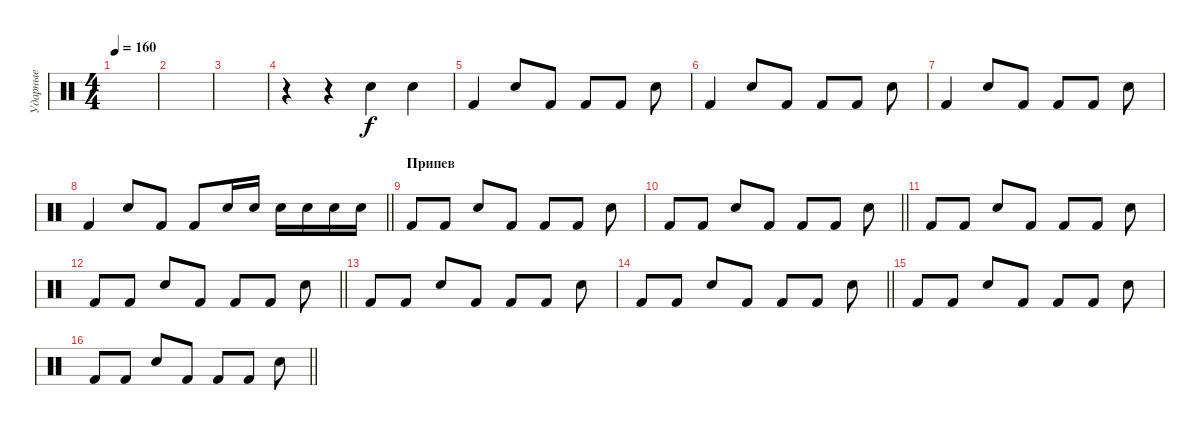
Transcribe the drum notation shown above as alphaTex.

\track ("Ударные" "Ударные") {instrument percussion}
\staff {score}
\articulation defaults
\ts (4 4)
\tempo 160
\clef neutral
\ks c
|
|
|
r.4 r.4 "Snare (hit) 2".4 "Snare (hit) 2".4 |
"Kick (hit) 2".4 "Snare (hit) 2".8 "Kick (hit) 2".8 "Kick (hit) 2".8 "Kick (hit) 2".8 "Snare (hit) 2".8 |
"Kick (hit) 2".4 "Snare (hit) 2".8 "Kick (hit) 2".8 "Kick (hit) 2".8 "Kick (hit) 2".8 "Snare (hit) 2".8 |
"Kick (hit) 2".4 "Snare (hit) 2".8 "Kick (hit) 2".8 "Kick (hit) 2".8 "Kick (hit) 2".8 "Snare (hit) 2".8 |
\barLineRight lightlight "Kick (hit) 2".4 "Snare (hit) 2".8 "Kick (hit) 2".8 "Kick (hit) 2".8 "Snare (hit) 2".16 "Snare (hit) 2".16 "Snare (hit) 2".16 "Snare (hit) 2".16 "Snare (hit) 2".16 "Snare (hit) 2".16
|
\section ("" "Припев")
"Kick (hit) 2".8 "Kick (hit) 2".8 "Snare (hit) 2".8 "Kick (hit) 2".8 "Kick (hit) 2".8 "Kick (hit) 2".8 "Snare (hit) 2".8 |
\barLineRight lightlight "Kick (hit) 2".8 "Kick (hit) 2".8 "Snare (hit) 2".8 "Kick (hit) 2".8 "Kick (hit) 2".8 "Kick (hit) 2".8 "Snare (hit) 2".8
|
"Kick (hit) 2".8 "Kick (hit) 2".8 "Snare (hit) 2".8 "Kick (hit) 2".8 "Kick (hit) 2".8 "Kick (hit) 2".8 "Snare (hit) 2".8 |
\barLineRight lightlight "Kick (hit) 2".8 "Kick (hit) 2".8 "Snare (hit) 2".8 "Kick (hit) 2".8 "Kick (hit) 2".8 "Kick (hit) 2".8 "Snare (hit) 2".8
|
"Kick (hit) 2".8 "Kick (hit) 2".8 "Snare (hit) 2".8 "Kick (hit) 2".8 "Kick (hit) 2".8 "Kick (hit) 2".8 "Snare (hit) 2".8 |
\barLineRight lightlight "Kick (hit) 2".8 "Kick (hit) 2".8 "Snare (hit) 2".8 "Kick (hit) 2".8 "Kick (hit) 2".8 "Kick (hit) 2".8 "Snare (hit) 2".8
|
"Kick (hit) 2".8 "Kick (hit) 2".8 "Snare (hit) 2".8 "Kick (hit) 2".8 "Kick (hit) 2".8 "Kick (hit) 2".8 "Snare (hit) 2".8 |
\barLineRight lightlight "Kick (hit) 2".8 "Kick (hit) 2".8 "Snare (hit) 2".8 "Kick (hit) 2".8 "Kick (hit) 2".8 "Kick (hit) 2".8 "Snare (hit) 2".8
